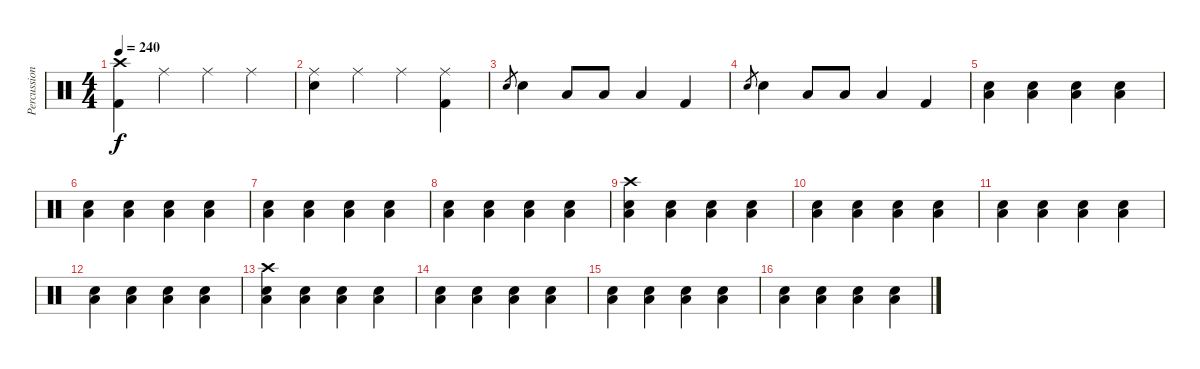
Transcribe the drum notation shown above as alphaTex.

\track ("Percussion" "Percussion") {instrument percussion}
\staff {score}
\articulation defaults
\ts (4 4)
\tempo 240
\clef neutral
\ks c
("Crash high (hit)" "Kick (hit) 2").4{dy f} "Ride (middle)".4 "Ride (middle)".4 "Ride (middle)".4 |
("Ride (middle)" "Snare (hit) 2").4 "Ride (middle)".4 "Ride (middle)".4 ("Ride (middle)" "Kick (hit) 2").4 |
"Snare (hit) 2".8{gr} "Snare (hit) 2".4 "Low Tom (hit)".8 "Low Tom (hit)".8 "Low Tom (hit)".4 "Kick (hit) 2".4 |
"Snare (hit) 2".8{gr} "Snare (hit) 2".4 "Low Tom (hit)".8 "Low Tom (hit)".8 "Low Tom (hit)".4 "Kick (hit) 2".4 |
("Snare (hit) 2" "Low Floor Tom (hit)").4 ("Snare (hit) 2" "Low Floor Tom (hit)").4 ("Snare (hit) 2" "Low Floor Tom (hit)").4 ("Snare (hit) 2" "Low Floor Tom (hit)").4 |
("Snare (hit) 2" "Low Floor Tom (hit)").4 ("Snare (hit) 2" "Low Floor Tom (hit)").4 ("Snare (hit) 2" "Low Floor Tom (hit)").4 ("Snare (hit) 2" "Low Floor Tom (hit)").4 |
("Snare (hit) 2" "Low Floor Tom (hit)").4 ("Snare (hit) 2" "Low Floor Tom (hit)").4 ("Snare (hit) 2" "Low Floor Tom (hit)").4 ("Snare (hit) 2" "Low Floor Tom (hit)").4 |
("Snare (hit) 2" "Low Floor Tom (hit)").4 ("Snare (hit) 2" "Low Floor Tom (hit)").4 ("Snare (hit) 2" "Low Floor Tom (hit)").4 ("Snare (hit) 2" "Low Floor Tom (hit)").4 |
("Crash high (hit)" "Snare (hit) 2" "Low Floor Tom (hit)").4 ("Snare (hit) 2" "Low Floor Tom (hit)").4 ("Snare (hit) 2" "Low Floor Tom (hit)").4 ("Snare (hit) 2" "Low Floor Tom (hit)").4 |
("Snare (hit) 2" "Low Floor Tom (hit)").4 ("Snare (hit) 2" "Low Floor Tom (hit)").4 ("Snare (hit) 2" "Low Floor Tom (hit)").4 ("Snare (hit) 2" "Low Floor Tom (hit)").4 |
("Snare (hit) 2" "Low Floor Tom (hit)").4 ("Snare (hit) 2" "Low Floor Tom (hit)").4 ("Snare (hit) 2" "Low Floor Tom (hit)").4 ("Snare (hit) 2" "Low Floor Tom (hit)").4 |
("Snare (hit) 2" "Low Floor Tom (hit)").4 ("Snare (hit) 2" "Low Floor Tom (hit)").4 ("Snare (hit) 2" "Low Floor Tom (hit)").4 ("Snare (hit) 2" "Low Floor Tom (hit)").4 |
("Crash high (hit)" "Snare (hit) 2" "Low Floor Tom (hit)").4 ("Snare (hit) 2" "Low Floor Tom (hit)").4 ("Snare (hit) 2" "Low Floor Tom (hit)").4 ("Snare (hit) 2" "Low Floor Tom (hit)").4 |
("Snare (hit) 2" "Low Floor Tom (hit)").4 ("Snare (hit) 2" "Low Floor Tom (hit)").4 ("Snare (hit) 2" "Low Floor Tom (hit)").4 ("Snare (hit) 2" "Low Floor Tom (hit)").4 |
("Snare (hit) 2" "Low Floor Tom (hit)").4 ("Snare (hit) 2" "Low Floor Tom (hit)").4 ("Snare (hit) 2" "Low Floor Tom (hit)").4 ("Snare (hit) 2" "Low Floor Tom (hit)").4 |
("Snare (hit) 2" "Low Floor Tom (hit)").4 ("Snare (hit) 2" "Low Floor Tom (hit)").4 ("Snare (hit) 2" "Low Floor Tom (hit)").4 ("Snare (hit) 2" "Low Floor Tom (hit)").4
